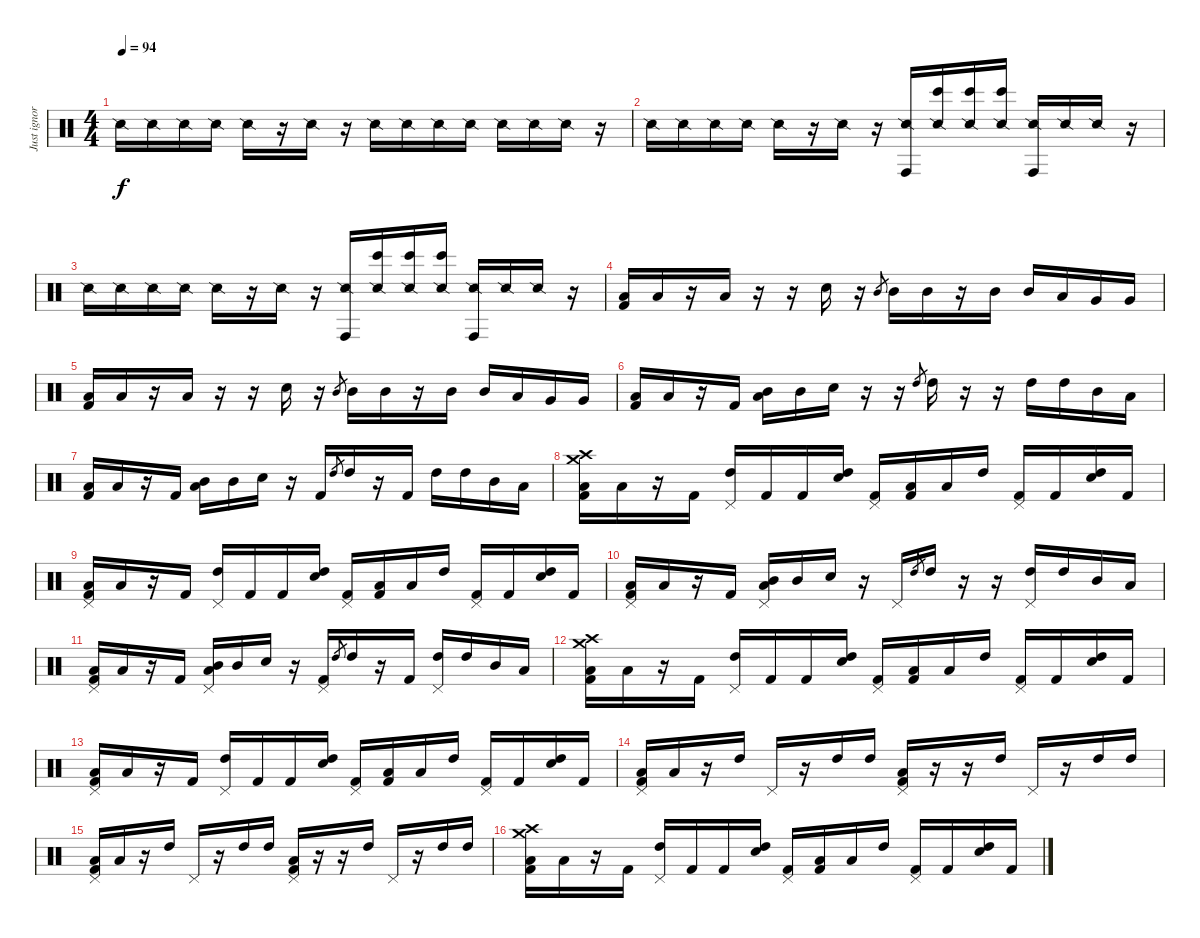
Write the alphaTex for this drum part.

\track ("Just ignore this track" "Just ignor") {instrument percussion}
\staff {score}
\articulation defaults
\ts (4 4)
\tempo 94
\clef neutral
\ks c "Snare (side stick) 2".16{dy f} "Snare (side stick) 2".16 "Snare (side stick) 2".16 "Snare (side stick) 2".16 "Snare (side stick) 2".16
r.16 "Snare (side stick) 2".16 r.16 "Snare (side stick) 2".16 "Snare (side stick) 2".16 "Snare (side stick) 2".16 "Snare (side stick) 2".16 "Snare (side stick) 2".16 "Snare (side stick) 2".16 "Snare (side stick) 2".16 r.16 |
"Snare (side stick) 2".16 "Snare (side stick) 2".16 "Snare (side stick) 2".16 "Snare (side stick) 2".16 "Snare (side stick) 2".16 r.16 "Snare (side stick) 2".16 r.16 ("Conga high (hit)" "Snare (side stick) 2").16 ("Bongo High (hit)" "Snare (side stick) 2").16 ("Bongo High (hit)" "Snare (side stick) 2").16 ("Bongo High (hit)" "Snare (side stick) 2").16 ("Conga high (hit)" "Snare (side stick) 2").16 "Snare (side stick) 2".16 "Snare (side stick) 2".16 r.16 |
"Snare (side stick) 2".16 "Snare (side stick) 2".16 "Snare (side stick) 2".16 "Snare (side stick) 2".16 "Snare (side stick) 2".16 r.16 "Snare (side stick) 2".16 r.16 ("Conga high (hit)" "Snare (side stick) 2").16 ("Bongo High (hit)" "Snare (side stick) 2").16 ("Bongo High (hit)" "Snare (side stick) 2").16 ("Bongo High (hit)" "Snare (side stick) 2").16 ("Conga high (hit)" "Snare (side stick) 2").16 "Snare (side stick) 2".16 "Snare (side stick) 2".16 r.16 |
("Low Floor Tom (hit)" "Kick (hit) 2").16 "Low Floor Tom (hit)".16 r.16 "Low Tom (hit)".16 r.16 r.16 "Snare (hit) 2".16 r.16 "Mid Tom (hit)".8{gr} "Mid Tom (hit)".16 "Mid Tom (hit)".16 r.16 "Mid Tom (hit)".16 "Mid Tom (hit)".16 "Low Tom (hit)".16 "Very Low Tom (hit)".16 "Very Low Tom (hit)".16 |
("Low Floor Tom (hit)" "Kick (hit) 2").16 "Low Floor Tom (hit)".16 r.16 "Low Tom (hit)".16 r.16 r.16 "Snare (hit) 2".16 r.16 "Mid Tom (hit)".8{gr} "Mid Tom (hit)".16 "Mid Tom (hit)".16 r.16 "Mid Tom (hit)".16 "Mid Tom (hit)".16 "Low Tom (hit)".16 "Very Low Tom (hit)".16 "Very Low Tom (hit)".16 |
("Low Floor Tom (hit)" "Kick (hit) 2").16 "Low Floor Tom (hit)".16 r.16 "Kick (hit) 2".16 ("Mid Tom (hit)" "Low Floor Tom (hit)").16 "Mid Tom (hit)".16 "Snare (hit) 2".16 r.16 r.16 "High Tom (hit)".8{gr} "High Tom (hit)".16 r.16 r.16 "High Tom (hit)".16 "High Tom (hit)".16 "Mid Tom (hit)".16 "Low Floor Tom (hit)".16 |
("Low Floor Tom (hit)" "Kick (hit) 2").16 "Low Floor Tom (hit)".16 r.16 "Kick (hit) 2".16 ("Mid Tom (hit)" "Low Floor Tom (hit)").16 "Mid Tom (hit)".16 "Snare (hit) 2".16 r.16 "Kick (hit) 2".16 "High Tom (hit)".8{gr} "High Tom (hit)".16 r.16 "Kick (hit) 2".16 "High Tom (hit)".16 "High Tom (hit)".16 "Mid Tom (hit)".16 "Low Floor Tom (hit)".16 |
("Crash medium (hit)" "Crash high (hit)" "Low Floor Tom (hit)" "Kick (hit) 2").16 "Low Floor Tom (hit)".16 r.16 "Kick (hit) 2".16 ("Pedal Hi-Hat (hit)" "High Tom (hit)").16 "Kick (hit) 2".16 "Kick (hit) 2".16 ("High Tom (hit)" "Snare (hit) 2").16 ("Pedal Hi-Hat (hit)" "Kick (hit) 2").16 ("Low Floor Tom (hit)" "Kick (hit) 2").16 "Low Floor Tom (hit)".16 "High Tom (hit)".16 ("Pedal Hi-Hat (hit)" "Kick (hit) 2").16 "Kick (hit) 2".16 ("High Tom (hit)" "Snare (hit) 2").16 "Kick (hit) 2".16 |
("Pedal Hi-Hat (hit)" "Low Floor Tom (hit)" "Kick (hit) 2").16 "Low Floor Tom (hit)".16 r.16 "Kick (hit) 2".16 ("Pedal Hi-Hat (hit)" "High Tom (hit)").16 "Kick (hit) 2".16 "Kick (hit) 2".16 ("High Tom (hit)" "Snare (hit) 2").16 ("Pedal Hi-Hat (hit)" "Kick (hit) 2").16 ("Low Floor Tom (hit)" "Kick (hit) 2").16 "Low Floor Tom (hit)".16 "High Tom (hit)".16 ("Pedal Hi-Hat (hit)" "Kick (hit) 2").16 "Kick (hit) 2".16 ("High Tom (hit)" "Snare (hit) 2").16 "Kick (hit) 2".16 |
("Pedal Hi-Hat (hit)" "Low Floor Tom (hit)" "Kick (hit) 2").16 "Low Floor Tom (hit)".16 r.16 "Kick (hit) 2".16 ("Pedal Hi-Hat (hit)" "Mid Tom (hit)" "Low Floor Tom (hit)").16 "Mid Tom (hit)".16 "Snare (hit) 2".16 r.16 "Pedal Hi-Hat (hit)".16 "High Tom (hit)".8{gr} "High Tom (hit)".16 r.16 r.16 ("Pedal Hi-Hat (hit)" "High Tom (hit)").16 "High Tom (hit)".16 "Mid Tom (hit)".16 "Low Floor Tom (hit)".16 |
("Pedal Hi-Hat (hit)" "Low Floor Tom (hit)" "Kick (hit) 2").16 "Low Floor Tom (hit)".16 r.16 "Kick (hit) 2".16 ("Pedal Hi-Hat (hit)" "Mid Tom (hit)" "Low Floor Tom (hit)").16 "Mid Tom (hit)".16 "Snare (hit) 2".16 r.16 ("Pedal Hi-Hat (hit)" "Kick (hit) 2").16 "High Tom (hit)".8{gr} "High Tom (hit)".16 r.16 "Kick (hit) 2".16 ("Pedal Hi-Hat (hit)" "High Tom (hit)").16 "High Tom (hit)".16 "Mid Tom (hit)".16 "Low Floor Tom (hit)".16 |
("Crash medium (hit)" "Crash high (hit)" "Low Floor Tom (hit)" "Kick (hit) 2").16 "Low Floor Tom (hit)".16 r.16 "Kick (hit) 2".16 ("Pedal Hi-Hat (hit)" "High Tom (hit)").16 "Kick (hit) 2".16 "Kick (hit) 2".16 ("High Tom (hit)" "Snare (hit) 2").16 ("Pedal Hi-Hat (hit)" "Kick (hit) 2").16 ("Low Floor Tom (hit)" "Kick (hit) 2").16 "Low Floor Tom (hit)".16 "High Tom (hit)".16 ("Pedal Hi-Hat (hit)" "Kick (hit) 2").16 "Kick (hit) 2".16 ("High Tom (hit)" "Snare (hit) 2").16 "Kick (hit) 2".16 |
("Pedal Hi-Hat (hit)" "Low Floor Tom (hit)" "Kick (hit) 2").16 "Low Floor Tom (hit)".16 r.16 "Kick (hit) 2".16 ("Pedal Hi-Hat (hit)" "High Tom (hit)").16 "Kick (hit) 2".16 "Kick (hit) 2".16 ("High Tom (hit)" "Snare (hit) 2").16 ("Pedal Hi-Hat (hit)" "Kick (hit) 2").16 ("Low Floor Tom (hit)" "Kick (hit) 2").16 "Low Floor Tom (hit)".16 "High Tom (hit)".16 ("Pedal Hi-Hat (hit)" "Kick (hit) 2").16 "Kick (hit) 2".16 ("High Tom (hit)" "Snare (hit) 2").16 "Kick (hit) 2".16 |
("Pedal Hi-Hat (hit)" "Low Floor Tom (hit)" "Kick (hit) 2").16 "Low Floor Tom (hit)".16 r.16 "High Tom (hit)".16 "Pedal Hi-Hat (hit)".16 r.16 "High Tom (hit)".16 "High Tom (hit)".16 ("Pedal Hi-Hat (hit)" "Low Floor Tom (hit)" "Kick (hit) 2").16 r.16 r.16 "High Tom (hit)".16 "Pedal Hi-Hat (hit)".16 r.16 "High Tom (hit)".16 "High Tom (hit)".16 |
("Pedal Hi-Hat (hit)" "Low Floor Tom (hit)" "Kick (hit) 2").16 "Low Floor Tom (hit)".16 r.16 "High Tom (hit)".16 "Pedal Hi-Hat (hit)".16 r.16 "High Tom (hit)".16 "High Tom (hit)".16 ("Pedal Hi-Hat (hit)" "Low Floor Tom (hit)" "Kick (hit) 2").16 r.16 r.16 "High Tom (hit)".16 "Pedal Hi-Hat (hit)".16 r.16 "High Tom (hit)".16 "High Tom (hit)".16 |
("Crash medium (hit)" "Crash high (hit)" "Low Floor Tom (hit)" "Kick (hit) 2").16 "Low Floor Tom (hit)".16 r.16 "Kick (hit) 2".16 ("Pedal Hi-Hat (hit)" "High Tom (hit)").16 "Kick (hit) 2".16 "Kick (hit) 2".16 ("High Tom (hit)" "Snare (hit) 2").16 ("Pedal Hi-Hat (hit)" "Kick (hit) 2").16 ("Low Floor Tom (hit)" "Kick (hit) 2").16 "Low Floor Tom (hit)".16 "High Tom (hit)".16 ("Pedal Hi-Hat (hit)" "Kick (hit) 2").16 "Kick (hit) 2".16 ("High Tom (hit)" "Snare (hit) 2").16 "Kick (hit) 2".16
